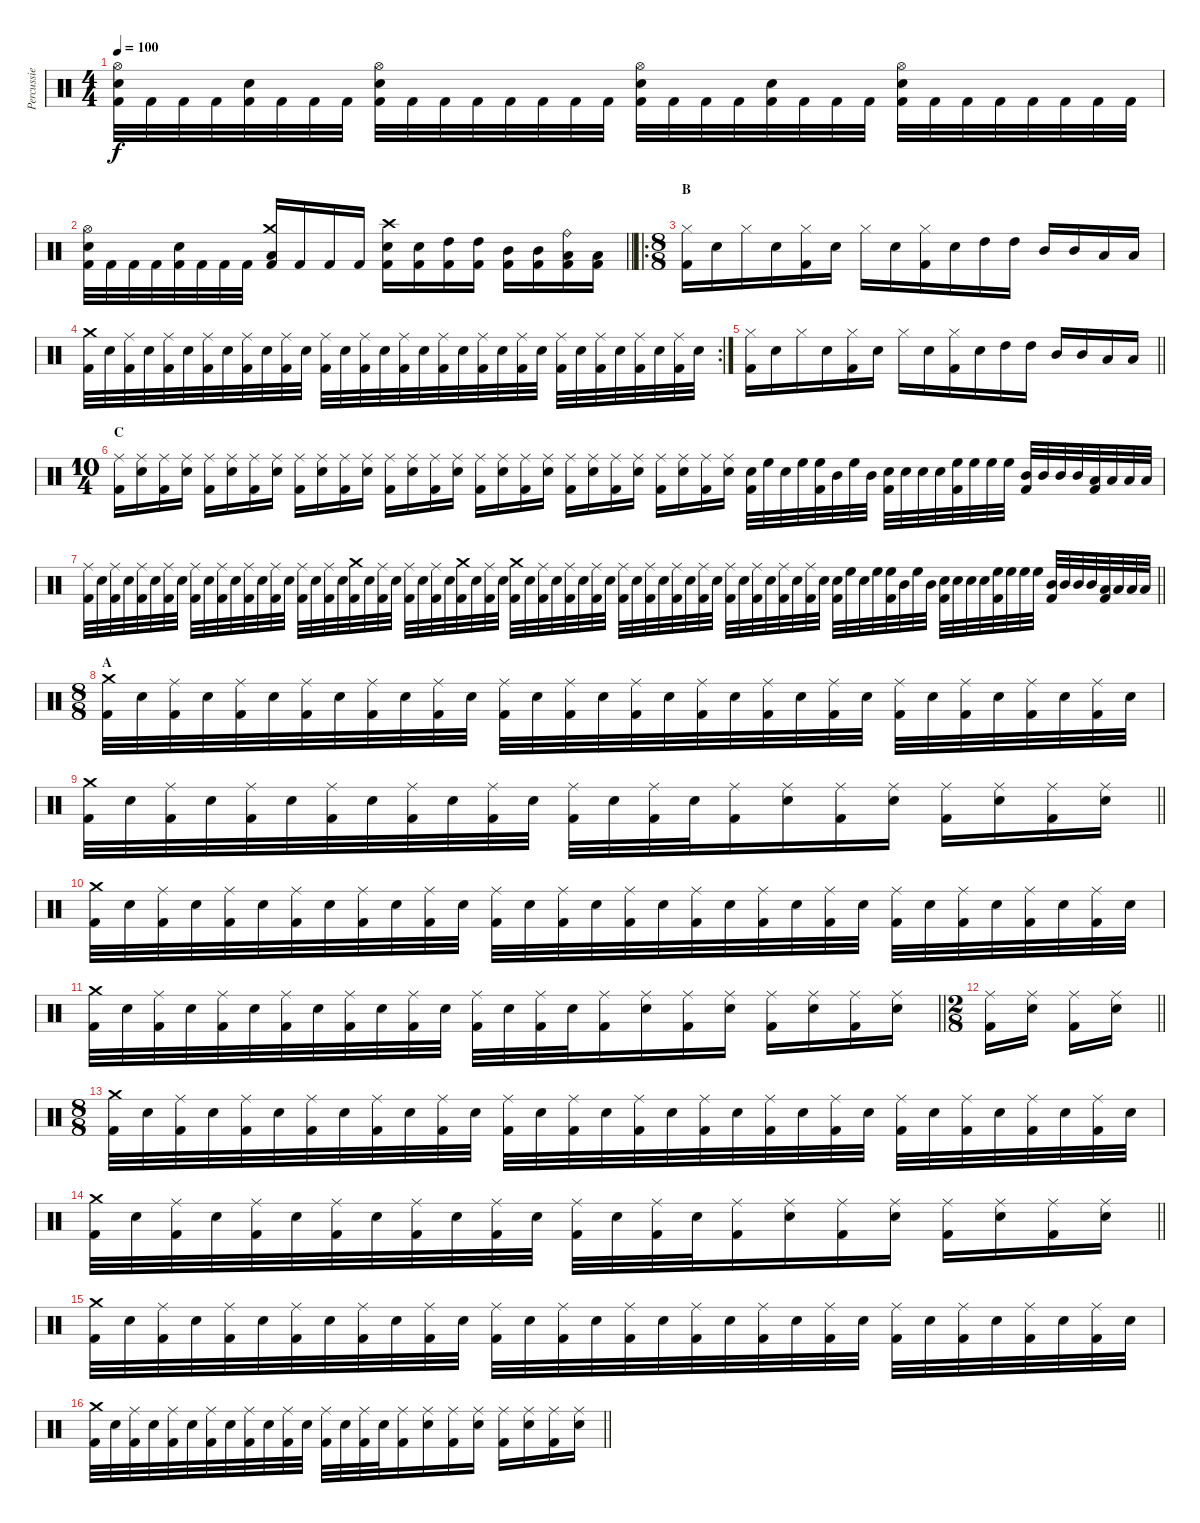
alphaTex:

\track ("Percussie" "Percussie") {instrument percussion}
\staff {score}
\articulation defaults
\ts (4 4)
\tempo 100
\clef neutral
\ks c
("Hi-Hat (open)" "Electric Snare (hit)" "Kick (hit) 2").32{dy f} "Kick (hit) 2".32 "Kick (hit) 2".32 "Kick (hit) 2".32 ("Electric Snare (hit)" "Kick (hit) 2").32 "Kick (hit) 2".32 "Kick (hit) 2".32 "Kick (hit) 2".32 ("Hi-Hat (open)" "Electric Snare (hit)" "Kick (hit) 2").32 "Kick (hit) 2".32 "Kick (hit) 2".32 "Kick (hit) 2".32 "Kick (hit) 2".32 "Kick (hit) 2".32 "Kick (hit) 2".32 "Kick (hit) 2".32 ("Hi-Hat (open)" "Electric Snare (hit)" "Kick (hit) 2").32 "Kick (hit) 2".32 "Kick (hit) 2".32 "Kick (hit) 2".32 ("Electric Snare (hit)" "Kick (hit) 2").32 "Kick (hit) 2".32 "Kick (hit) 2".32 "Kick (hit) 2".32 ("Hi-Hat (open)" "Electric Snare (hit)" "Kick (hit) 2").32 "Kick (hit) 2".32 "Kick (hit) 2".32 "Kick (hit) 2".32 "Kick (hit) 2".32 "Kick (hit) 2".32 "Kick (hit) 2".32 "Kick (hit) 2".32 |
\barLineRight lightlight
("Hi-Hat (open)" "Electric Snare (hit)" "Kick (hit) 2").32 "Kick (hit) 2".32 "Kick (hit) 2".32 "Kick (hit) 2".32 ("Electric Snare (hit)" "Kick (hit) 2").32 "Kick (hit) 2".32 "Kick (hit) 2".32 "Kick (hit) 2".32 ("Crash medium (hit)" "Low Tom (hit)" "Kick (hit) 2").16 "Kick (hit) 2".16 "Kick (hit) 2".16 "Kick (hit) 2".16 ("Crash high (hit)" "Electric Snare (hit)" "Kick (hit) 2").16 ("Electric Snare (hit)" "Kick (hit) 2").16 ("High Tom (hit)" "Kick (hit) 2").16 ("High Tom (hit)" "Kick (hit) 2").16 ("Mid Tom (hit)" "Kick (hit) 2").16 ("Mid Tom (hit)" "Kick (hit) 2").16 ("Ride (bell)" "Low Tom (hit)" "Kick (hit) 2").16 ("Low Tom (hit)" "Kick (hit) 2").16 |
\ro
\ts (8 8)
\section ("" "B")
("Hi-Hat (closed)" "Kick (hit) 2").16 "Electric Snare (hit)".16 "Hi-Hat (closed)".16 "Electric Snare (hit)".16 ("Hi-Hat (closed)" "Kick (hit) 2").16 "Electric Snare (hit)".16 "Hi-Hat (closed)".16 "Electric Snare (hit)".16 ("Hi-Hat (closed)" "Kick (hit) 2").16 "Electric Snare (hit)".16 "High Tom (hit)".16 "High Tom (hit)".16 "Mid Tom (hit)".16 "Mid Tom (hit)".16 "Low Tom (hit)".16 "Low Tom (hit)".16 |
\rc 2
("Crash medium (hit)" "Kick (hit) 2").32 "Electric Snare (hit)".32 ("Ride (middle)" "Kick (hit) 2").32 "Electric Snare (hit)".32 ("Ride (middle)" "Kick (hit) 2").32 "Electric Snare (hit)".32 ("Ride (middle)" "Kick (hit) 2").32 "Electric Snare (hit)".32 ("Ride (middle)" "Kick (hit) 2").32 "Electric Snare (hit)".32 ("Ride (middle)" "Kick (hit) 2").32 "Electric Snare (hit)".32 ("Ride (middle)" "Kick (hit) 2").32 "Electric Snare (hit)".32 ("Ride (middle)" "Kick (hit) 2").32 "Electric Snare (hit)".32 ("Ride (middle)" "Kick (hit) 2").32 "Electric Snare (hit)".32 ("Ride (middle)" "Kick (hit) 2").32 "Electric Snare (hit)".32 ("Ride (middle)" "Kick (hit) 2").32 "Electric Snare (hit)".32 ("Ride (middle)" "Kick (hit) 2").32 "Electric Snare (hit)".32 ("Ride (middle)" "Kick (hit) 2").32 "Electric Snare (hit)".32 ("Ride (middle)" "Kick (hit) 2").32 "Electric Snare (hit)".32 ("Ride (middle)" "Kick (hit) 2").32 "Electric Snare (hit)".32 ("Ride (middle)" "Kick (hit) 2").32 "Electric Snare (hit)".32 |
\barLineRight lightlight
("Hi-Hat (closed)" "Kick (hit) 2").16 "Electric Snare (hit)".16 "Hi-Hat (closed)".16 "Electric Snare (hit)".16 ("Hi-Hat (closed)" "Kick (hit) 2").16 "Electric Snare (hit)".16 "Hi-Hat (closed)".16 "Electric Snare (hit)".16 ("Hi-Hat (closed)" "Kick (hit) 2").16 "Electric Snare (hit)".16 "High Tom (hit)".16 "High Tom (hit)".16 "Mid Tom (hit)".16 "Mid Tom (hit)".16 "Low Tom (hit)".16 "Low Tom (hit)".16 |
\ts (10 4)
\section ("" "C")
("Ride (middle)" "Kick (hit) 2").16 ("Ride (middle)" "Electric Snare (hit)").16 ("Ride (middle)" "Kick (hit) 2").16 ("Ride (middle)" "Electric Snare (hit)").16 ("Ride (middle)" "Kick (hit) 2").16 ("Ride (middle)" "Electric Snare (hit)").16 ("Ride (middle)" "Kick (hit) 2").16 ("Ride (middle)" "Electric Snare (hit)").16 ("Ride (middle)" "Kick (hit) 2").16 ("Ride (middle)" "Electric Snare (hit)").16 ("Ride (middle)" "Kick (hit) 2").16 ("Ride (middle)" "Electric Snare (hit)").16 ("Ride (middle)" "Kick (hit) 2").16 ("Ride (middle)" "Electric Snare (hit)").16 ("Ride (middle)" "Kick (hit) 2").16 ("Ride (middle)" "Electric Snare (hit)").16 ("Ride (middle)" "Kick (hit) 2").16 ("Ride (middle)" "Electric Snare (hit)").16 ("Ride (middle)" "Kick (hit) 2").16 ("Ride (middle)" "Electric Snare (hit)").16 ("Ride (middle)" "Kick (hit) 2").16 ("Ride (middle)" "Electric Snare (hit)").16 ("Ride (middle)" "Kick (hit) 2").16 ("Ride (middle)" "Electric Snare (hit)").16 ("Ride (middle)" "Kick (hit) 2").16 ("Ride (middle)" "Electric Snare (hit)").16 ("Ride (middle)" "Kick (hit) 2").16 ("Ride (middle)" "Electric Snare (hit)").16 ("Electric Snare (hit)" "Kick (hit) 2").32 "High Floor Tom (hit)".32 "Electric Snare (hit)".32 "High Floor Tom (hit)".32 ("High Floor Tom (hit)" "Kick (hit) 2").32 "Mid Tom (hit)".32 "High Floor Tom (hit)".32 "Mid Tom (hit)".32 ("Electric Snare (hit)" "Kick (hit) 2").32 "Electric Snare (hit)".32 "Electric Snare (hit)".32 "Electric Snare (hit)".32 ("High Floor Tom (hit)" "Kick (hit) 2").32 "High Floor Tom (hit)".32 "High Floor Tom (hit)".32 "High Floor Tom (hit)".32 ("Mid Tom (hit)" "Kick (hit) 2").32 "Mid Tom (hit)".32 "Mid Tom (hit)".32 "Mid Tom (hit)".32 ("Low Tom (hit)" "Kick (hit) 2").32 "Low Tom (hit)".32 "Low Tom (hit)".32 "Low Tom (hit)".32 |
\barLineRight lightlight
("Ride (middle)" "Kick (hit) 2").32 "Electric Snare (hit)".32 ("Ride (middle)" "Kick (hit) 2").32 "Electric Snare (hit)".32 ("Ride (middle)" "Kick (hit) 2").32 "Electric Snare (hit)".32 ("Ride (middle)" "Kick (hit) 2").32 "Electric Snare (hit)".32 ("Ride (middle)" "Kick (hit) 2").32 "Electric Snare (hit)".32 ("Ride (middle)" "Kick (hit) 2").32 "Electric Snare (hit)".32 ("Ride (middle)" "Kick (hit) 2").32 "Electric Snare (hit)".32 ("Ride (middle)" "Kick (hit) 2").32 "Electric Snare (hit)".32 ("Ride (middle)" "Kick (hit) 2").32 "Electric Snare (hit)".32 ("Ride (middle)" "Kick (hit) 2").32 "Electric Snare (hit)".32 ("Crash medium (hit)" "Kick (hit) 2").32 "Electric Snare (hit)".32 ("Ride (middle)" "Kick (hit) 2").32 "Electric Snare (hit)".32 ("Ride (middle)" "Kick (hit) 2").32 "Electric Snare (hit)".32 ("Ride (middle)" "Kick (hit) 2").32 "Electric Snare (hit)".32 ("Crash medium (hit)" "Kick (hit) 2").32 "Electric Snare (hit)".32 ("Ride (middle)" "Kick (hit) 2").32 "Electric Snare (hit)".32 ("Crash medium (hit)" "Kick (hit) 2").32 "Electric Snare (hit)".32 ("Ride (middle)" "Kick (hit) 2").32 "Electric Snare (hit)".32 ("Ride (middle)" "Kick (hit) 2").32 "Electric Snare (hit)".32 ("Ride (middle)" "Kick (hit) 2").32 "Electric Snare (hit)".32 ("Ride (middle)" "Kick (hit) 2").32 "Electric Snare (hit)".32 ("Ride (middle)" "Kick (hit) 2").32 "Electric Snare (hit)".32 ("Ride (middle)" "Kick (hit) 2").32 "Electric Snare (hit)".32 ("Ride (middle)" "Kick (hit) 2").32 "Electric Snare (hit)".32 ("Ride (middle)" "Kick (hit) 2").32 "Electric Snare (hit)".32 ("Ride (middle)" "Kick (hit) 2").32 "Electric Snare (hit)".32 ("Ride (middle)" "Kick (hit) 2").32 "Electric Snare (hit)".32 ("Ride (middle)" "Kick (hit) 2").32 "Electric Snare (hit)".32 ("Electric Snare (hit)" "Kick (hit) 2").32 "High Floor Tom (hit)".32 "Electric Snare (hit)".32 "High Floor Tom (hit)".32 ("High Floor Tom (hit)" "Kick (hit) 2").32 "Mid Tom (hit)".32 "High Floor Tom (hit)".32 "Mid Tom (hit)".32 ("Electric Snare (hit)" "Kick (hit) 2").32 "Electric Snare (hit)".32 "Electric Snare (hit)".32 "Electric Snare (hit)".32 ("High Floor Tom (hit)" "Kick (hit) 2").32 "High Floor Tom (hit)".32 "High Floor Tom (hit)".32 "High Floor Tom (hit)".32 ("Mid Tom (hit)" "Kick (hit) 2").32 "Mid Tom (hit)".32 "Mid Tom (hit)".32 "Mid Tom (hit)".32 ("Low Tom (hit)" "Kick (hit) 2").32 "Low Tom (hit)".32 "Low Tom (hit)".32 "Low Tom (hit)".32 |
\ts (8 8)
\section ("" "A")
("Crash medium (hit)" "Kick (hit) 2").32 "Electric Snare (hit)".32 ("Ride (middle)" "Kick (hit) 2").32 "Electric Snare (hit)".32 ("Ride (middle)" "Kick (hit) 2").32 "Electric Snare (hit)".32 ("Ride (middle)" "Kick (hit) 2").32 "Electric Snare (hit)".32 ("Ride (middle)" "Kick (hit) 2").32 "Electric Snare (hit)".32 ("Ride (middle)" "Kick (hit) 2").32 "Electric Snare (hit)".32 ("Ride (middle)" "Kick (hit) 2").32 "Electric Snare (hit)".32 ("Ride (middle)" "Kick (hit) 2").32 "Electric Snare (hit)".32 ("Ride (middle)" "Kick (hit) 2").32 "Electric Snare (hit)".32 ("Ride (middle)" "Kick (hit) 2").32 "Electric Snare (hit)".32 ("Ride (middle)" "Kick (hit) 2").32 "Electric Snare (hit)".32 ("Ride (middle)" "Kick (hit) 2").32 "Electric Snare (hit)".32 ("Ride (middle)" "Kick (hit) 2").32 "Electric Snare (hit)".32 ("Ride (middle)" "Kick (hit) 2").32 "Electric Snare (hit)".32 ("Ride (middle)" "Kick (hit) 2").32 "Electric Snare (hit)".32 ("Ride (middle)" "Kick (hit) 2").32 "Electric Snare (hit)".32 |
\barLineRight lightlight
("Crash medium (hit)" "Kick (hit) 2").32 "Electric Snare (hit)".32 ("Ride (middle)" "Kick (hit) 2").32 "Electric Snare (hit)".32 ("Ride (middle)" "Kick (hit) 2").32 "Electric Snare (hit)".32 ("Ride (middle)" "Kick (hit) 2").32 "Electric Snare (hit)".32 ("Ride (middle)" "Kick (hit) 2").32 "Electric Snare (hit)".32 ("Ride (middle)" "Kick (hit) 2").32 "Electric Snare (hit)".32 ("Ride (middle)" "Kick (hit) 2").32 "Electric Snare (hit)".32 ("Ride (middle)" "Kick (hit) 2").32 "Electric Snare (hit)".32 ("Ride (middle)" "Kick (hit) 2").16 ("Ride (middle)" "Electric Snare (hit)").16 ("Ride (middle)" "Kick (hit) 2").16 ("Ride (middle)" "Electric Snare (hit)").16 ("Ride (middle)" "Kick (hit) 2").16 ("Ride (middle)" "Electric Snare (hit)").16 ("Ride (middle)" "Kick (hit) 2").16 ("Ride (middle)" "Electric Snare (hit)").16 |
("Crash medium (hit)" "Kick (hit) 2").32 "Electric Snare (hit)".32 ("Ride (middle)" "Kick (hit) 2").32 "Electric Snare (hit)".32 ("Ride (middle)" "Kick (hit) 2").32 "Electric Snare (hit)".32 ("Ride (middle)" "Kick (hit) 2").32 "Electric Snare (hit)".32 ("Ride (middle)" "Kick (hit) 2").32 "Electric Snare (hit)".32 ("Ride (middle)" "Kick (hit) 2").32 "Electric Snare (hit)".32 ("Ride (middle)" "Kick (hit) 2").32 "Electric Snare (hit)".32 ("Ride (middle)" "Kick (hit) 2").32 "Electric Snare (hit)".32 ("Ride (middle)" "Kick (hit) 2").32 "Electric Snare (hit)".32 ("Ride (middle)" "Kick (hit) 2").32 "Electric Snare (hit)".32 ("Ride (middle)" "Kick (hit) 2").32 "Electric Snare (hit)".32 ("Ride (middle)" "Kick (hit) 2").32 "Electric Snare (hit)".32 ("Ride (middle)" "Kick (hit) 2").32 "Electric Snare (hit)".32 ("Ride (middle)" "Kick (hit) 2").32 "Electric Snare (hit)".32 ("Ride (middle)" "Kick (hit) 2").32 "Electric Snare (hit)".32 ("Ride (middle)" "Kick (hit) 2").32 "Electric Snare (hit)".32 |
\barLineRight lightlight
("Crash medium (hit)" "Kick (hit) 2").32 "Electric Snare (hit)".32 ("Ride (middle)" "Kick (hit) 2").32 "Electric Snare (hit)".32 ("Ride (middle)" "Kick (hit) 2").32 "Electric Snare (hit)".32 ("Ride (middle)" "Kick (hit) 2").32 "Electric Snare (hit)".32 ("Ride (middle)" "Kick (hit) 2").32 "Electric Snare (hit)".32 ("Ride (middle)" "Kick (hit) 2").32 "Electric Snare (hit)".32 ("Ride (middle)" "Kick (hit) 2").32 "Electric Snare (hit)".32 ("Ride (middle)" "Kick (hit) 2").32 "Electric Snare (hit)".32 ("Ride (middle)" "Kick (hit) 2").16 ("Ride (middle)" "Electric Snare (hit)").16 ("Ride (middle)" "Kick (hit) 2").16 ("Ride (middle)" "Electric Snare (hit)").16 ("Ride (middle)" "Kick (hit) 2").16 ("Ride (middle)" "Electric Snare (hit)").16 ("Ride (middle)" "Kick (hit) 2").16 ("Ride (middle)" "Electric Snare (hit)").16 |
\ts (2 8)
\barLineRight lightlight
("Ride (middle)" "Kick (hit) 2").16 ("Ride (middle)" "Electric Snare (hit)").16 ("Ride (middle)" "Kick (hit) 2").16 ("Ride (middle)" "Electric Snare (hit)").16 |
\ts (8 8)
("Crash medium (hit)" "Kick (hit) 2").32 "Electric Snare (hit)".32 ("Ride (middle)" "Kick (hit) 2").32 "Electric Snare (hit)".32 ("Ride (middle)" "Kick (hit) 2").32 "Electric Snare (hit)".32 ("Ride (middle)" "Kick (hit) 2").32 "Electric Snare (hit)".32 ("Ride (middle)" "Kick (hit) 2").32 "Electric Snare (hit)".32 ("Ride (middle)" "Kick (hit) 2").32 "Electric Snare (hit)".32 ("Ride (middle)" "Kick (hit) 2").32 "Electric Snare (hit)".32 ("Ride (middle)" "Kick (hit) 2").32 "Electric Snare (hit)".32 ("Ride (middle)" "Kick (hit) 2").32 "Electric Snare (hit)".32 ("Ride (middle)" "Kick (hit) 2").32 "Electric Snare (hit)".32 ("Ride (middle)" "Kick (hit) 2").32 "Electric Snare (hit)".32 ("Ride (middle)" "Kick (hit) 2").32 "Electric Snare (hit)".32 ("Ride (middle)" "Kick (hit) 2").32 "Electric Snare (hit)".32 ("Ride (middle)" "Kick (hit) 2").32 "Electric Snare (hit)".32 ("Ride (middle)" "Kick (hit) 2").32 "Electric Snare (hit)".32 ("Ride (middle)" "Kick (hit) 2").32 "Electric Snare (hit)".32 |
\barLineRight lightlight
("Crash medium (hit)" "Kick (hit) 2").32 "Electric Snare (hit)".32 ("Ride (middle)" "Kick (hit) 2").32 "Electric Snare (hit)".32 ("Ride (middle)" "Kick (hit) 2").32 "Electric Snare (hit)".32 ("Ride (middle)" "Kick (hit) 2").32 "Electric Snare (hit)".32 ("Ride (middle)" "Kick (hit) 2").32 "Electric Snare (hit)".32 ("Ride (middle)" "Kick (hit) 2").32 "Electric Snare (hit)".32 ("Ride (middle)" "Kick (hit) 2").32 "Electric Snare (hit)".32 ("Ride (middle)" "Kick (hit) 2").32 "Electric Snare (hit)".32 ("Ride (middle)" "Kick (hit) 2").16 ("Ride (middle)" "Electric Snare (hit)").16 ("Ride (middle)" "Kick (hit) 2").16 ("Ride (middle)" "Electric Snare (hit)").16 ("Ride (middle)" "Kick (hit) 2").16 ("Ride (middle)" "Electric Snare (hit)").16 ("Ride (middle)" "Kick (hit) 2").16 ("Ride (middle)" "Electric Snare (hit)").16 |
("Crash medium (hit)" "Kick (hit) 2").32 "Electric Snare (hit)".32 ("Ride (middle)" "Kick (hit) 2").32 "Electric Snare (hit)".32 ("Ride (middle)" "Kick (hit) 2").32 "Electric Snare (hit)".32 ("Ride (middle)" "Kick (hit) 2").32 "Electric Snare (hit)".32 ("Ride (middle)" "Kick (hit) 2").32 "Electric Snare (hit)".32 ("Ride (middle)" "Kick (hit) 2").32 "Electric Snare (hit)".32 ("Ride (middle)" "Kick (hit) 2").32 "Electric Snare (hit)".32 ("Ride (middle)" "Kick (hit) 2").32 "Electric Snare (hit)".32 ("Ride (middle)" "Kick (hit) 2").32 "Electric Snare (hit)".32 ("Ride (middle)" "Kick (hit) 2").32 "Electric Snare (hit)".32 ("Ride (middle)" "Kick (hit) 2").32 "Electric Snare (hit)".32 ("Ride (middle)" "Kick (hit) 2").32 "Electric Snare (hit)".32 ("Ride (middle)" "Kick (hit) 2").32 "Electric Snare (hit)".32 ("Ride (middle)" "Kick (hit) 2").32 "Electric Snare (hit)".32 ("Ride (middle)" "Kick (hit) 2").32 "Electric Snare (hit)".32 ("Ride (middle)" "Kick (hit) 2").32 "Electric Snare (hit)".32 |
\barLineRight lightlight
("Crash medium (hit)" "Kick (hit) 2").32 "Electric Snare (hit)".32 ("Ride (middle)" "Kick (hit) 2").32 "Electric Snare (hit)".32 ("Ride (middle)" "Kick (hit) 2").32 "Electric Snare (hit)".32 ("Ride (middle)" "Kick (hit) 2").32 "Electric Snare (hit)".32 ("Ride (middle)" "Kick (hit) 2").32 "Electric Snare (hit)".32 ("Ride (middle)" "Kick (hit) 2").32 "Electric Snare (hit)".32 ("Ride (middle)" "Kick (hit) 2").32 "Electric Snare (hit)".32 ("Ride (middle)" "Kick (hit) 2").32 "Electric Snare (hit)".32 ("Ride (middle)" "Kick (hit) 2").16 ("Ride (middle)" "Electric Snare (hit)").16 ("Ride (middle)" "Kick (hit) 2").16 ("Ride (middle)" "Electric Snare (hit)").16 ("Ride (middle)" "Kick (hit) 2").16 ("Ride (middle)" "Electric Snare (hit)").16 ("Ride (middle)" "Kick (hit) 2").16 ("Ride (middle)" "Electric Snare (hit)").16
